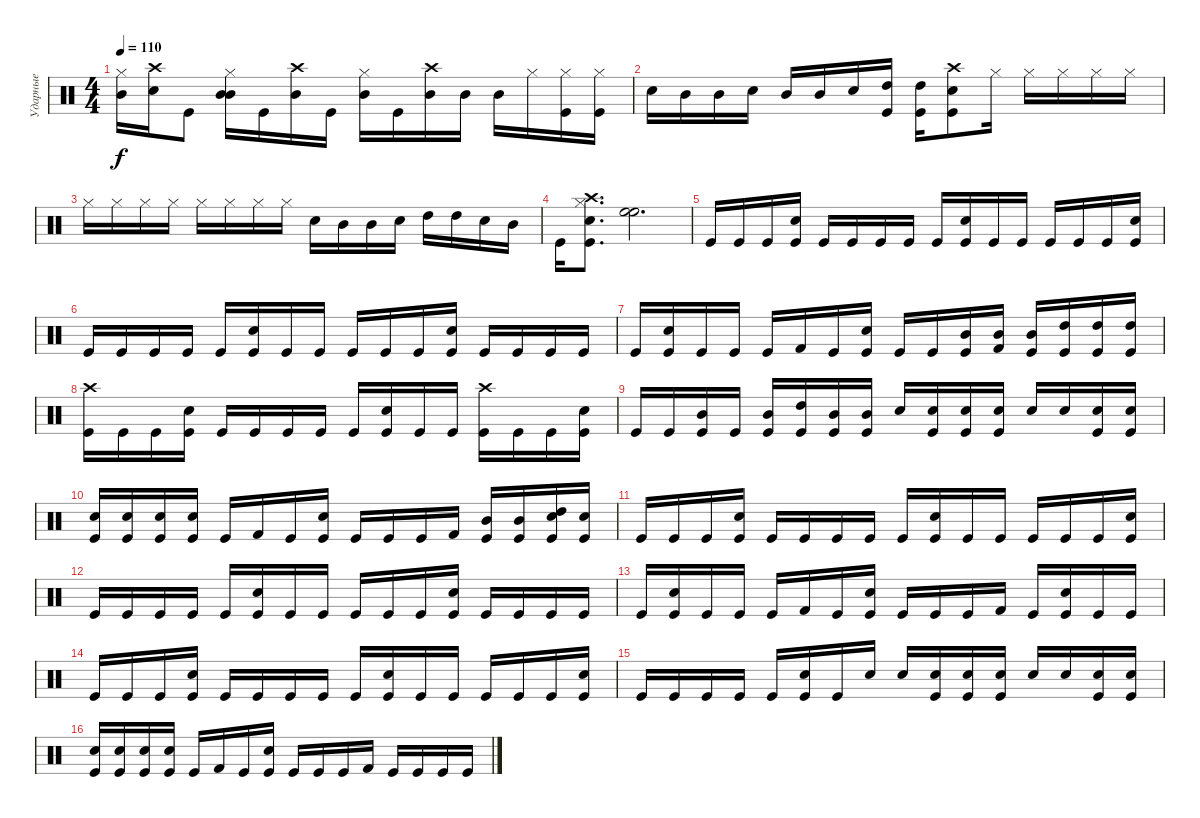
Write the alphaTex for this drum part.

\track ("Ударные" "Ударные") {instrument percussion}
\staff {score}
\articulation defaults
\ts (4 4)
\tempo 110
\clef neutral
\ks c
("Hi-Hat (closed)" "Mid Tom (hit)").16{dy f} ("Crash high (hit)" "Electric Snare (hit)").16 "Kick (hit)".8 ("Hi-Hat (closed)" "Mid Tom (hit)" "Mid Tom (hit)").16 "Kick (hit)".16 ("Crash high (hit)" "Mid Tom (hit)").16 "Kick (hit)".16 ("Hi-Hat (closed)" "Mid Tom (hit)").16 "Kick (hit)".16 ("Crash high (hit)" "Mid Tom (hit)").16 "Mid Tom (hit)".16 "Mid Tom (hit)".16 "Hi-Hat (closed)".16 ("Hi-Hat (closed)" "Kick (hit)").16 ("Hi-Hat (closed)" "Kick (hit)").16 |
"Electric Snare (hit)".16 "Mid Tom (hit)".16 "Mid Tom (hit)".16 "Electric Snare (hit)".16 "Mid Tom (hit)".16 "Mid Tom (hit)".16 "Electric Snare (hit)".16 ("High Tom (hit)" "Kick (hit)").16 ("High Tom (hit)" "Kick (hit)").16 ("Crash high (hit)" "Electric Snare (hit)" "Kick (hit)").8 "Hi-Hat (closed)".16 "Hi-Hat (closed)".16 "Hi-Hat (closed)".16 "Hi-Hat (closed)".16 "Hi-Hat (closed)".16 |
"Hi-Hat (closed)".16 "Hi-Hat (closed)".16 "Hi-Hat (closed)".16 "Hi-Hat (closed)".16 "Hi-Hat (closed)".16 "Hi-Hat (closed)".16 "Hi-Hat (closed)".16 "Hi-Hat (closed)".16 "Electric Snare (hit)".16 "Mid Tom (hit)".16 "Mid Tom (hit)".16 "Electric Snare (hit)".16 "High Tom (hit)".16 "High Tom (hit)".16 "Electric Snare (hit)".16 "Mid Tom (hit)".16 |
"Kick (hit)".16 ("Hi-Hat (closed)" "Crash high (hit)" "Electric Snare (hit)" "Kick (hit)").8{d} ("High Floor Tom (hit)" "High Floor Tom (hit)").2{d} |
"Kick (hit)".16 "Kick (hit)".16 "Kick (hit)".16 ("Electric Snare (hit)" "Kick (hit)").16 "Kick (hit)".16 "Kick (hit)".16 "Kick (hit)".16 "Kick (hit)".16 "Kick (hit)".16 ("Electric Snare (hit)" "Kick (hit)").16 "Kick (hit)".16 "Kick (hit)".16 "Kick (hit)".16 "Kick (hit)".16 "Kick (hit)".16 ("Electric Snare (hit)" "Kick (hit)").16 |
"Kick (hit)".16 "Kick (hit)".16 "Kick (hit)".16 "Kick (hit)".16 "Kick (hit)".16 ("Electric Snare (hit)" "Kick (hit)").16 "Kick (hit)".16 "Kick (hit)".16 "Kick (hit)".16 "Kick (hit)".16 "Kick (hit)".16 ("Electric Snare (hit)" "Kick (hit)").16 "Kick (hit)".16 "Kick (hit)".16 "Kick (hit)".16 "Kick (hit)".16 |
"Kick (hit)".16 ("Electric Snare (hit)" "Kick (hit)").16 "Kick (hit)".16 "Kick (hit)".16 "Kick (hit)".16 "Kick (hit) 2".16 "Kick (hit)".16 ("Electric Snare (hit)" "Kick (hit)").16 "Kick (hit)".16 "Kick (hit)".16 ("Mid Tom (hit)" "Kick (hit)").16 ("Mid Tom (hit)" "Kick (hit) 2").16 ("Mid Tom (hit)" "Kick (hit)").16 ("High Tom (hit)" "Kick (hit)").16 ("High Tom (hit)" "Kick (hit)").16 ("High Tom (hit)" "Kick (hit)").16 |
("Crash high (hit)" "Kick (hit)").16 "Kick (hit)".16 "Kick (hit)".16 ("Electric Snare (hit)" "Kick (hit)").16 "Kick (hit)".16 "Kick (hit)".16 "Kick (hit)".16 "Kick (hit)".16 "Kick (hit)".16 ("Electric Snare (hit)" "Kick (hit)").16 "Kick (hit)".16 "Kick (hit)".16 ("Crash high (hit)" "Kick (hit)").16 "Kick (hit)".16 "Kick (hit)".16 ("Electric Snare (hit)" "Kick (hit)").16 |
"Kick (hit)".16 "Kick (hit)".16 ("Mid Tom (hit)" "Kick (hit)").16 "Kick (hit)".16 ("Mid Tom (hit)" "Kick (hit)").16 ("High Tom (hit)" "Kick (hit)").16 ("Mid Tom (hit)" "Kick (hit)").16 ("Mid Tom (hit)" "Kick (hit)").16 "Electric Snare (hit)".16 ("Electric Snare (hit)" "Kick (hit)").16 ("Electric Snare (hit)" "Kick (hit)").16 ("Electric Snare (hit)" "Kick (hit)").16 "Electric Snare (hit)".16 "Electric Snare (hit)".16 ("Electric Snare (hit)" "Kick (hit)").16 ("Electric Snare (hit)" "Kick (hit)").16 |
("Electric Snare (hit)" "Kick (hit)").16 ("Electric Snare (hit)" "Kick (hit)").16 ("Electric Snare (hit)" "Kick (hit)").16 ("Electric Snare (hit)" "Kick (hit)").16 "Kick (hit)".16 "Kick (hit) 2".16 "Kick (hit)".16 ("Electric Snare (hit)" "Kick (hit)").16 "Kick (hit)".16 "Kick (hit)".16 "Kick (hit)".16 "Kick (hit) 2".16 ("Mid Tom (hit)" "Kick (hit)").16 ("Mid Tom (hit)" "Kick (hit)").16 ("Electric Snare (hit)" "High Tom (hit)" "Kick (hit)").16 ("Electric Snare (hit)" "Kick (hit)").16 |
"Kick (hit)".16 "Kick (hit)".16 "Kick (hit)".16 ("Electric Snare (hit)" "Kick (hit)").16 "Kick (hit)".16 "Kick (hit)".16 "Kick (hit)".16 "Kick (hit)".16 "Kick (hit)".16 ("Electric Snare (hit)" "Kick (hit)").16 "Kick (hit)".16 "Kick (hit)".16 "Kick (hit)".16 "Kick (hit)".16 "Kick (hit)".16 ("Electric Snare (hit)" "Kick (hit)").16 |
"Kick (hit)".16 "Kick (hit)".16 "Kick (hit)".16 "Kick (hit)".16 "Kick (hit)".16 ("Electric Snare (hit)" "Kick (hit)").16 "Kick (hit)".16 "Kick (hit)".16 "Kick (hit)".16 "Kick (hit)".16 "Kick (hit)".16 ("Electric Snare (hit)" "Kick (hit)").16 "Kick (hit)".16 "Kick (hit)".16 "Kick (hit)".16 "Kick (hit)".16 |
"Kick (hit)".16 ("Electric Snare (hit)" "Kick (hit)").16 "Kick (hit)".16 "Kick (hit)".16 "Kick (hit)".16 "Kick (hit) 2".16 "Kick (hit)".16 ("Electric Snare (hit)" "Kick (hit)").16 "Kick (hit)".16 "Kick (hit)".16 "Kick (hit)".16 "Kick (hit) 2".16 "Kick (hit)".16 ("Electric Snare (hit)" "Kick (hit)").16 "Kick (hit)".16 "Kick (hit)".16 |
"Kick (hit)".16 "Kick (hit)".16 "Kick (hit)".16 ("Electric Snare (hit)" "Kick (hit)").16 "Kick (hit)".16 "Kick (hit)".16 "Kick (hit)".16 "Kick (hit)".16 "Kick (hit)".16 ("Electric Snare (hit)" "Kick (hit)").16 "Kick (hit)".16 "Kick (hit)".16 "Kick (hit)".16 "Kick (hit)".16 "Kick (hit)".16 ("Electric Snare (hit)" "Kick (hit)").16 |
"Kick (hit)".16 "Kick (hit)".16 "Kick (hit)".16 "Kick (hit)".16 "Kick (hit)".16 ("Electric Snare (hit)" "Kick (hit)").16 "Kick (hit)".16 "Electric Snare (hit)".16 "Electric Snare (hit)".16 ("Electric Snare (hit)" "Kick (hit)").16 ("Electric Snare (hit)" "Kick (hit)").16 ("Electric Snare (hit)" "Kick (hit)").16 "Electric Snare (hit)".16 "Electric Snare (hit)".16 ("Electric Snare (hit)" "Kick (hit)").16 ("Electric Snare (hit)" "Kick (hit)").16 |
("Electric Snare (hit)" "Kick (hit)").16 ("Electric Snare (hit)" "Kick (hit)").16 ("Electric Snare (hit)" "Kick (hit)").16 ("Electric Snare (hit)" "Kick (hit)").16 "Kick (hit)".16 "Kick (hit) 2".16 "Kick (hit)".16 ("Electric Snare (hit)" "Kick (hit)").16 "Kick (hit)".16 "Kick (hit)".16 "Kick (hit)".16 "Kick (hit) 2".16 "Kick (hit)".16 "Kick (hit)".16 "Kick (hit)".16 "Kick (hit)".16
